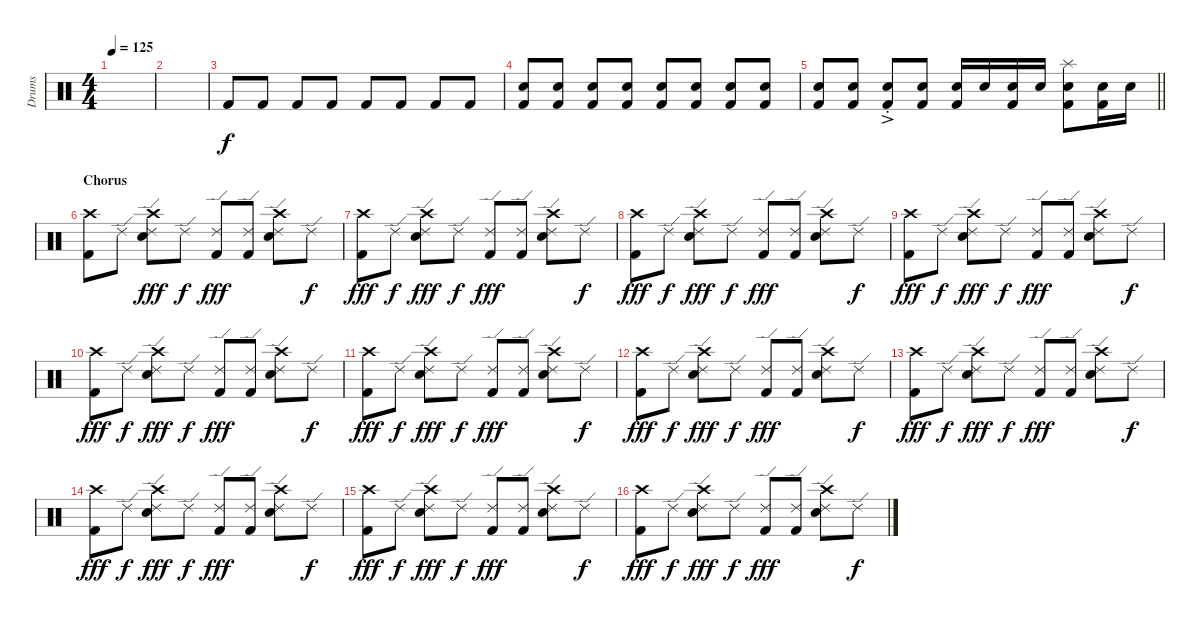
\track ("Drums" "Drums") {instrument percussion}
\staff {score}
\articulation defaults
\ts (4 4)
\tempo 125
\clef neutral
\ks c
|
|
"Kick (hit) 2".8{volume 6} "Kick (hit) 2".8{volume 14} "Kick (hit) 2".8 "Kick (hit) 2".8 "Kick (hit) 2".8 "Kick (hit) 2".8 "Kick (hit) 2".8 "Kick (hit) 2".8 |
("Electric Snare (hit)" "Kick (hit) 2").8 ("Electric Snare (hit)" "Kick (hit) 2").8 ("Electric Snare (hit)" "Kick (hit) 2").8 ("Electric Snare (hit)" "Kick (hit) 2").8 ("Electric Snare (hit)" "Kick (hit) 2").8 ("Electric Snare (hit)" "Kick (hit) 2").8 ("Electric Snare (hit)" "Kick (hit) 2").8 ("Electric Snare (hit)" "Kick (hit) 2").8 |
\barLineRight lightlight
("Electric Snare (hit)" "Kick (hit) 2").8 ("Electric Snare (hit)" "Kick (hit) 2").8 ("Electric Snare (hit)"{ac st} "Kick (hit) 2"{ac st}).8 ("Electric Snare (hit)" "Kick (hit) 2").8 ("Electric Snare (hit)" "Kick (hit) 2").16 "Electric Snare (hit)".16 ("Electric Snare (hit)" "Kick (hit) 2").16 "Electric Snare (hit)".16 ("Splash (hit)" "Electric Snare (hit)" "Kick (hit) 2").8 ("Electric Snare (hit)" "Kick (hit) 2").16 "Electric Snare (hit)".16 |
\section ("" "Chorus")
("Crash high (hit)" "Kick (hit) 2").8 "Ride (edge) 2".8{dy f} ("Ride (edge) 2" "Crash high (hit)" "Electric Snare (hit)").8{dy fff} "Ride (edge) 2".8{dy f} ("Ride (edge) 2" "Kick (hit) 2").8{dy fff} ("Ride (edge) 2" "Kick (hit) 2").8 ("Ride (edge) 2" "Crash high (hit)" "Electric Snare (hit)").8 "Ride (edge) 2".8{dy f} |
("Crash high (hit)" "Kick (hit) 2").8{dy fff} "Ride (edge) 2".8{dy f} ("Ride (edge) 2" "Crash high (hit)" "Electric Snare (hit)").8{dy fff} "Ride (edge) 2".8{dy f} ("Ride (edge) 2" "Kick (hit) 2").8{dy fff} ("Ride (edge) 2" "Kick (hit) 2").8 ("Ride (edge) 2" "Crash high (hit)" "Electric Snare (hit)").8 "Ride (edge) 2".8{dy f} |
("Crash high (hit)" "Kick (hit) 2").8{dy fff} "Ride (edge) 2".8{dy f} ("Ride (edge) 2" "Crash high (hit)" "Electric Snare (hit)").8{dy fff} "Ride (edge) 2".8{dy f} ("Ride (edge) 2" "Kick (hit) 2").8{dy fff} ("Ride (edge) 2" "Kick (hit) 2").8 ("Ride (edge) 2" "Crash high (hit)" "Electric Snare (hit)").8 "Ride (edge) 2".8{dy f} |
("Crash high (hit)" "Kick (hit) 2").8{dy fff} "Ride (edge) 2".8{dy f} ("Ride (edge) 2" "Crash high (hit)" "Electric Snare (hit)").8{dy fff} "Ride (edge) 2".8{dy f} ("Ride (edge) 2" "Kick (hit) 2").8{dy fff} ("Ride (edge) 2" "Kick (hit) 2").8 ("Ride (edge) 2" "Crash high (hit)" "Electric Snare (hit)").8 "Ride (edge) 2".8{dy f} |
("Crash high (hit)" "Kick (hit) 2").8{dy fff} "Ride (edge) 2".8{dy f} ("Ride (edge) 2" "Crash high (hit)" "Electric Snare (hit)").8{dy fff} "Ride (edge) 2".8{dy f} ("Ride (edge) 2" "Kick (hit) 2").8{dy fff} ("Ride (edge) 2" "Kick (hit) 2").8 ("Ride (edge) 2" "Crash high (hit)" "Electric Snare (hit)").8 "Ride (edge) 2".8{dy f} |
("Crash high (hit)" "Kick (hit) 2").8{dy fff} "Ride (edge) 2".8{dy f} ("Ride (edge) 2" "Crash high (hit)" "Electric Snare (hit)").8{dy fff} "Ride (edge) 2".8{dy f} ("Ride (edge) 2" "Kick (hit) 2").8{dy fff} ("Ride (edge) 2" "Kick (hit) 2").8 ("Ride (edge) 2" "Crash high (hit)" "Electric Snare (hit)").8 "Ride (edge) 2".8{dy f} |
("Crash high (hit)" "Kick (hit) 2").8{dy fff} "Ride (edge) 2".8{dy f} ("Ride (edge) 2" "Crash high (hit)" "Electric Snare (hit)").8{dy fff} "Ride (edge) 2".8{dy f} ("Ride (edge) 2" "Kick (hit) 2").8{dy fff} ("Ride (edge) 2" "Kick (hit) 2").8 ("Ride (edge) 2" "Crash high (hit)" "Electric Snare (hit)").8 "Ride (edge) 2".8{dy f} |
("Crash high (hit)" "Kick (hit) 2").8{dy fff} "Ride (edge) 2".8{dy f} ("Ride (edge) 2" "Crash high (hit)" "Electric Snare (hit)").8{dy fff} "Ride (edge) 2".8{dy f} ("Ride (edge) 2" "Kick (hit) 2").8{dy fff} ("Ride (edge) 2" "Kick (hit) 2").8 ("Ride (edge) 2" "Crash high (hit)" "Electric Snare (hit)").8 "Ride (edge) 2".8{dy f} |
("Crash high (hit)" "Kick (hit) 2").8{dy fff} "Ride (edge) 2".8{dy f} ("Ride (edge) 2" "Crash high (hit)" "Electric Snare (hit)").8{dy fff} "Ride (edge) 2".8{dy f} ("Ride (edge) 2" "Kick (hit) 2").8{dy fff} ("Ride (edge) 2" "Kick (hit) 2").8 ("Ride (edge) 2" "Crash high (hit)" "Electric Snare (hit)").8 "Ride (edge) 2".8{dy f} |
("Crash high (hit)" "Kick (hit) 2").8{dy fff} "Ride (edge) 2".8{dy f} ("Ride (edge) 2" "Crash high (hit)" "Electric Snare (hit)").8{dy fff} "Ride (edge) 2".8{dy f} ("Ride (edge) 2" "Kick (hit) 2").8{dy fff} ("Ride (edge) 2" "Kick (hit) 2").8 ("Ride (edge) 2" "Crash high (hit)" "Electric Snare (hit)").8 "Ride (edge) 2".8{dy f} |
("Crash high (hit)" "Kick (hit) 2").8{dy fff} "Ride (edge) 2".8{dy f} ("Ride (edge) 2" "Crash high (hit)" "Electric Snare (hit)").8{dy fff} "Ride (edge) 2".8{dy f} ("Ride (edge) 2" "Kick (hit) 2").8{dy fff} ("Ride (edge) 2" "Kick (hit) 2").8 ("Ride (edge) 2" "Crash high (hit)" "Electric Snare (hit)").8 "Ride (edge) 2".8{dy f}
